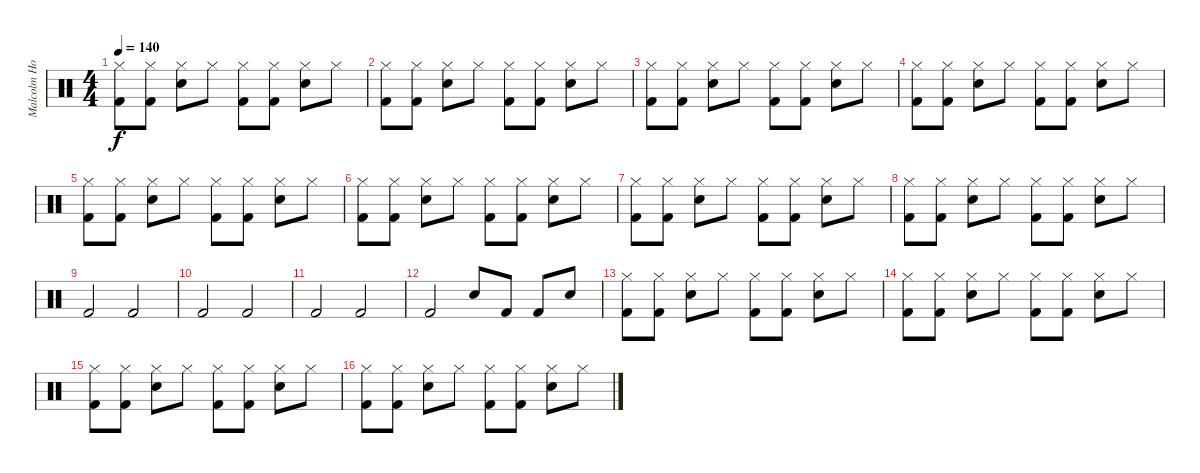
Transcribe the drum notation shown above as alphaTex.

\track ("Malcolm Holmes - Drums" "Malcolm Ho") {instrument percussion}
\staff {score}
\articulation defaults
\ts (4 4)
\tempo 140
\clef neutral
\ks c
("Kick (hit) 2" "Hi-Hat (closed)").8{dy f} ("Kick (hit) 2" "Hi-Hat (closed)").8 ("Snare (hit) 2" "Hi-Hat (closed)").8 "Hi-Hat (closed)".8 ("Kick (hit) 2" "Hi-Hat (closed)").8 ("Kick (hit) 2" "Hi-Hat (closed)").8 ("Snare (hit) 2" "Hi-Hat (closed)").8 "Hi-Hat (closed)".8 |
("Kick (hit) 2" "Hi-Hat (closed)").8 ("Kick (hit) 2" "Hi-Hat (closed)").8 ("Snare (hit) 2" "Hi-Hat (closed)").8 "Hi-Hat (closed)".8 ("Kick (hit) 2" "Hi-Hat (closed)").8 ("Kick (hit) 2" "Hi-Hat (closed)").8 ("Snare (hit) 2" "Hi-Hat (closed)").8 "Hi-Hat (closed)".8 |
("Kick (hit) 2" "Hi-Hat (closed)").8 ("Kick (hit) 2" "Hi-Hat (closed)").8 ("Snare (hit) 2" "Hi-Hat (closed)").8 "Hi-Hat (closed)".8 ("Kick (hit) 2" "Hi-Hat (closed)").8 ("Kick (hit) 2" "Hi-Hat (closed)").8 ("Snare (hit) 2" "Hi-Hat (closed)").8 "Hi-Hat (closed)".8 |
("Kick (hit) 2" "Hi-Hat (closed)").8 ("Kick (hit) 2" "Hi-Hat (closed)").8 ("Snare (hit) 2" "Hi-Hat (closed)").8 "Hi-Hat (closed)".8 ("Kick (hit) 2" "Hi-Hat (closed)").8 ("Kick (hit) 2" "Hi-Hat (closed)").8 ("Snare (hit) 2" "Hi-Hat (closed)").8 "Hi-Hat (closed)".8 |
("Kick (hit) 2" "Hi-Hat (closed)").8 ("Kick (hit) 2" "Hi-Hat (closed)").8 ("Snare (hit) 2" "Hi-Hat (closed)").8 "Hi-Hat (closed)".8 ("Kick (hit) 2" "Hi-Hat (closed)").8 ("Kick (hit) 2" "Hi-Hat (closed)").8 ("Snare (hit) 2" "Hi-Hat (closed)").8 "Hi-Hat (closed)".8 |
("Kick (hit) 2" "Hi-Hat (closed)").8 ("Kick (hit) 2" "Hi-Hat (closed)").8 ("Snare (hit) 2" "Hi-Hat (closed)").8 "Hi-Hat (closed)".8 ("Kick (hit) 2" "Hi-Hat (closed)").8 ("Kick (hit) 2" "Hi-Hat (closed)").8 ("Snare (hit) 2" "Hi-Hat (closed)").8 "Hi-Hat (closed)".8 |
("Kick (hit) 2" "Hi-Hat (closed)").8 ("Kick (hit) 2" "Hi-Hat (closed)").8 ("Snare (hit) 2" "Hi-Hat (closed)").8 "Hi-Hat (closed)".8 ("Kick (hit) 2" "Hi-Hat (closed)").8 ("Kick (hit) 2" "Hi-Hat (closed)").8 ("Snare (hit) 2" "Hi-Hat (closed)").8 "Hi-Hat (closed)".8 |
("Kick (hit) 2" "Hi-Hat (closed)").8 ("Kick (hit) 2" "Hi-Hat (closed)").8 ("Snare (hit) 2" "Hi-Hat (closed)").8 "Hi-Hat (closed)".8 ("Kick (hit) 2" "Hi-Hat (closed)").8 ("Kick (hit) 2" "Hi-Hat (closed)").8 ("Snare (hit) 2" "Hi-Hat (closed)").8 "Hi-Hat (closed)".8 |
"Kick (hit) 2".2 "Kick (hit) 2".2 |
"Kick (hit) 2".2 "Kick (hit) 2".2 |
"Kick (hit) 2".2 "Kick (hit) 2".2 |
"Kick (hit) 2".2 "Snare (hit) 2".8 "Kick (hit) 2".8 "Kick (hit) 2".8 "Snare (hit) 2".8 |
("Kick (hit) 2" "Hi-Hat (closed)").8 ("Kick (hit) 2" "Hi-Hat (closed)").8 ("Snare (hit) 2" "Hi-Hat (closed)").8 "Hi-Hat (closed)".8 ("Kick (hit) 2" "Hi-Hat (closed)").8 ("Kick (hit) 2" "Hi-Hat (closed)").8 ("Snare (hit) 2" "Hi-Hat (closed)").8 "Hi-Hat (closed)".8 |
("Kick (hit) 2" "Hi-Hat (closed)").8 ("Kick (hit) 2" "Hi-Hat (closed)").8 ("Snare (hit) 2" "Hi-Hat (closed)").8 "Hi-Hat (closed)".8 ("Kick (hit) 2" "Hi-Hat (closed)").8 ("Kick (hit) 2" "Hi-Hat (closed)").8 ("Snare (hit) 2" "Hi-Hat (closed)").8 "Hi-Hat (closed)".8 |
("Kick (hit) 2" "Hi-Hat (closed)").8 ("Kick (hit) 2" "Hi-Hat (closed)").8 ("Snare (hit) 2" "Hi-Hat (closed)").8 "Hi-Hat (closed)".8 ("Kick (hit) 2" "Hi-Hat (closed)").8 ("Kick (hit) 2" "Hi-Hat (closed)").8 ("Snare (hit) 2" "Hi-Hat (closed)").8 "Hi-Hat (closed)".8 |
("Kick (hit) 2" "Hi-Hat (closed)").8 ("Kick (hit) 2" "Hi-Hat (closed)").8 ("Snare (hit) 2" "Hi-Hat (closed)").8 "Hi-Hat (closed)".8 ("Kick (hit) 2" "Hi-Hat (closed)").8 ("Kick (hit) 2" "Hi-Hat (closed)").8 ("Snare (hit) 2" "Hi-Hat (closed)").8 "Hi-Hat (closed)".8
